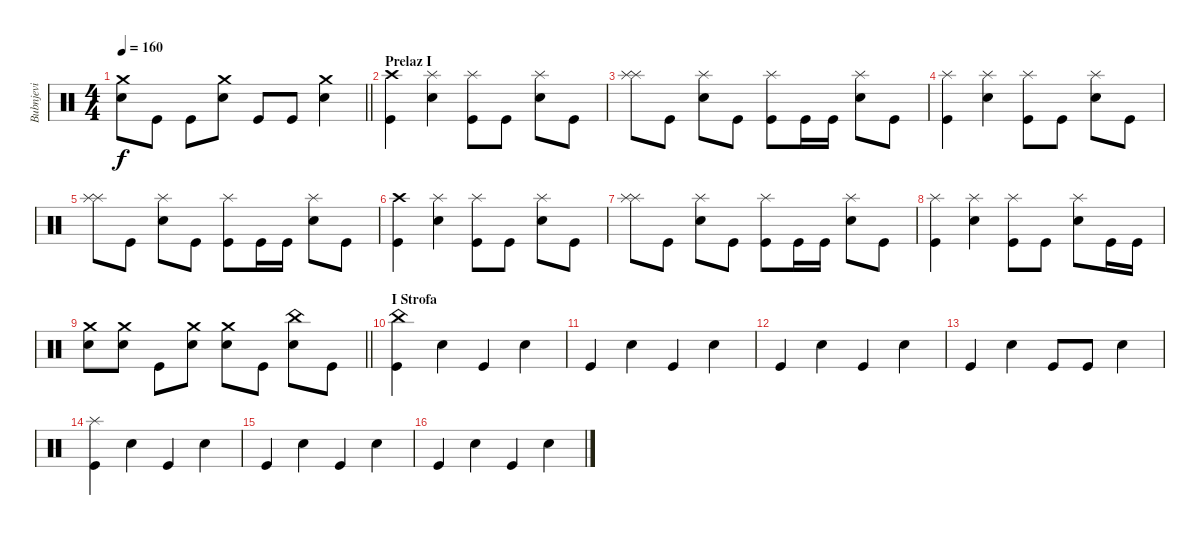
\track ("Bubnjevi" "Bubnjevi") {instrument percussion}
\staff {score}
\articulation defaults
\ts (4 4)
\tempo 160
\clef neutral
\barLineRight lightlight
\ks c
("Snare (hit) 2" "Crash medium (hit)").8{dy f} "Kick (hit)".8 "Kick (hit)".8 ("Snare (hit) 2" "Crash medium (hit)").8 "Kick (hit)".8 "Kick (hit)".8 ("Snare (hit) 2" "Crash medium (hit)").4 |
\section ("" "Prelaz I")
("Kick (hit)" "Crash high (hit)").4 ("Snare (hit) 2" "Splash (hit)").4 ("Kick (hit)" "Splash (hit)").8 "Kick (hit)".8 ("Snare (hit) 2" "Splash (hit)").8 "Kick (hit)".8 |
("Splash (hit)" "Splash (hit)").8 "Kick (hit)".8 ("Snare (hit) 2" "Splash (hit)").8 "Kick (hit)".8 ("Kick (hit)" "Splash (hit)").8 "Kick (hit)".16 "Kick (hit)".16 ("Snare (hit) 2" "Splash (hit)").8 "Kick (hit)".8 |
("Kick (hit)" "Splash (hit)").4 ("Snare (hit) 2" "Splash (hit)").4 ("Kick (hit)" "Splash (hit)").8 "Kick (hit)".8 ("Snare (hit) 2" "Splash (hit)").8 "Kick (hit)".8 |
("Splash (hit)" "Splash (hit)").8 "Kick (hit)".8 ("Snare (hit) 2" "Splash (hit)").8 "Kick (hit)".8 ("Kick (hit)" "Splash (hit)").8 "Kick (hit)".16 "Kick (hit)".16 ("Snare (hit) 2" "Splash (hit)").8 "Kick (hit)".8 |
("Kick (hit)" "Crash high (hit)").4 ("Snare (hit) 2" "Splash (hit)").4 ("Kick (hit)" "Splash (hit)").8 "Kick (hit)".8 ("Snare (hit) 2" "Splash (hit)").8 "Kick (hit)".8 |
("Splash (hit)" "Splash (hit)").8 "Kick (hit)".8 ("Snare (hit) 2" "Splash (hit)").8 "Kick (hit)".8 ("Kick (hit)" "Splash (hit)").8 "Kick (hit)".16 "Kick (hit)".16 ("Snare (hit) 2" "Splash (hit)").8 "Kick (hit)".8 |
("Kick (hit)" "Splash (hit)").4 ("Snare (hit) 2" "Splash (hit)").4 ("Kick (hit)" "Splash (hit)").8 "Kick (hit)".8 ("Snare (hit) 2" "Splash (hit)").8 "Kick (hit)".16 "Kick (hit)".16 |
\barLineRight lightlight
("Snare (hit) 2" "Crash medium (hit)").8 ("Snare (hit) 2" "Crash medium (hit)").8 "Kick (hit)".8 ("Snare (hit) 2" "Crash medium (hit)").8 ("Snare (hit) 2" "Crash medium (hit)").8 "Kick (hit)".8 ("Snare (hit) 2" "China (hit)").8 "Kick (hit)".8 |
\section ("" "I Strofa")
("China (hit)" "Kick (hit)").4 "Snare (hit) 2".4 "Kick (hit)".4 "Snare (hit) 2".4 |
"Kick (hit)".4 "Snare (hit) 2".4 "Kick (hit)".4 "Snare (hit) 2".4 |
"Kick (hit)".4 "Snare (hit) 2".4 "Kick (hit)".4 "Snare (hit) 2".4 |
"Kick (hit)".4 "Snare (hit) 2".4 "Kick (hit)".8 "Kick (hit)".8 "Snare (hit) 2".4 |
("Splash (hit)" "Kick (hit)").4 "Snare (hit) 2".4 "Kick (hit)".4 "Snare (hit) 2".4 |
"Kick (hit)".4 "Snare (hit) 2".4 "Kick (hit)".4 "Snare (hit) 2".4 |
"Kick (hit)".4 "Snare (hit) 2".4 "Kick (hit)".4 "Snare (hit) 2".4
